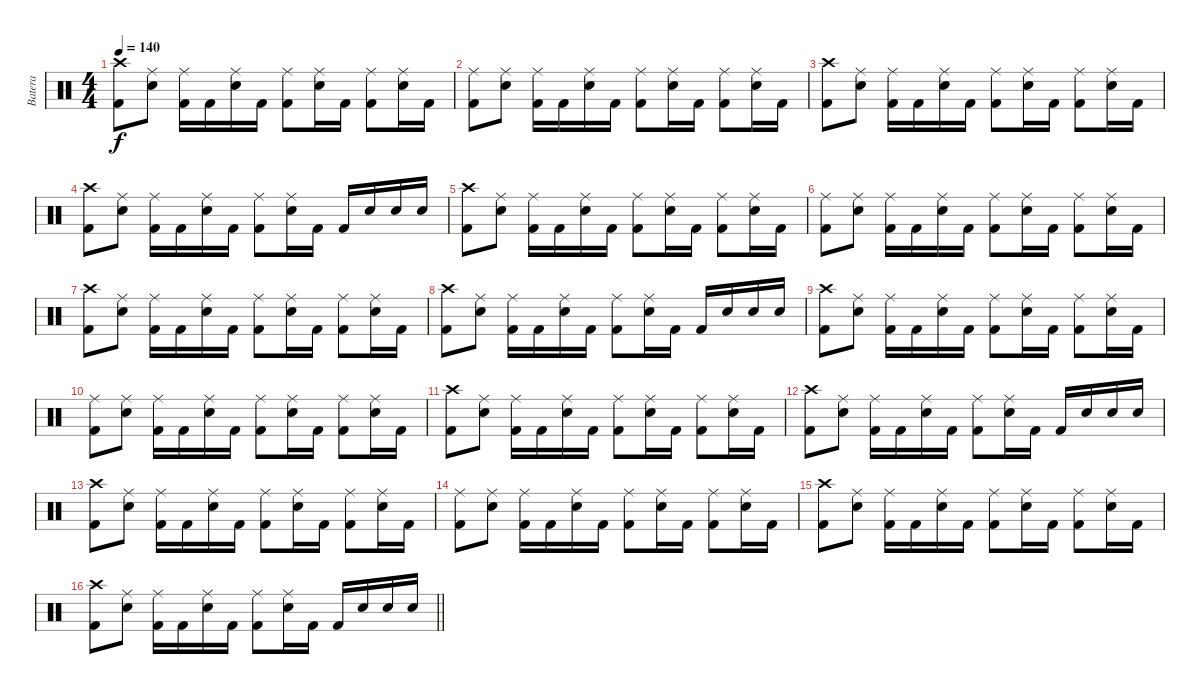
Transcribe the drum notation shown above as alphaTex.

\track ("Batera" "Batera") {instrument percussion}
\staff {score}
\articulation defaults
\ts (4 4)
\tempo 140
\clef neutral
\ks c
("Crash high (hit)" "Kick (hit) 2").8{dy f} ("Ride (middle)" "Electric Snare (hit)").8 ("Ride (middle)" "Kick (hit) 2").16 "Kick (hit) 2".16 ("Ride (middle)" "Electric Snare (hit)").16 "Kick (hit) 2".16 ("Ride (middle)" "Kick (hit) 2").8 ("Ride (middle)" "Electric Snare (hit)").16 "Kick (hit) 2".16 ("Ride (middle)" "Kick (hit) 2").8 ("Ride (middle)" "Electric Snare (hit)").16 "Kick (hit) 2".16 |
("Ride (middle)" "Kick (hit) 2").8 ("Ride (middle)" "Electric Snare (hit)").8 ("Ride (middle)" "Kick (hit) 2").16 "Kick (hit) 2".16 ("Ride (middle)" "Electric Snare (hit)").16 "Kick (hit) 2".16 ("Ride (middle)" "Kick (hit) 2").8 ("Ride (middle)" "Electric Snare (hit)").16 "Kick (hit) 2".16 ("Ride (middle)" "Kick (hit) 2").8 ("Ride (middle)" "Electric Snare (hit)").16 "Kick (hit) 2".16 |
("Crash high (hit)" "Kick (hit) 2").8 ("Ride (middle)" "Electric Snare (hit)").8 ("Ride (middle)" "Kick (hit) 2").16 "Kick (hit) 2".16 ("Ride (middle)" "Electric Snare (hit)").16 "Kick (hit) 2".16 ("Ride (middle)" "Kick (hit) 2").8 ("Ride (middle)" "Electric Snare (hit)").16 "Kick (hit) 2".16 ("Ride (middle)" "Kick (hit) 2").8 ("Ride (middle)" "Electric Snare (hit)").16 "Kick (hit) 2".16 |
("Crash high (hit)" "Kick (hit) 2").8 ("Ride (middle)" "Electric Snare (hit)").8 ("Ride (middle)" "Kick (hit) 2").16 "Kick (hit) 2".16 ("Ride (middle)" "Electric Snare (hit)").16 "Kick (hit) 2".16 ("Ride (middle)" "Kick (hit) 2").8 ("Ride (middle)" "Electric Snare (hit)").16 "Kick (hit) 2".16 "Kick (hit) 2".16 "Electric Snare (hit)".16 "Electric Snare (hit)".16 "Electric Snare (hit)".16 |
("Crash high (hit)" "Kick (hit) 2").8 ("Ride (middle)" "Electric Snare (hit)").8 ("Ride (middle)" "Kick (hit) 2").16 "Kick (hit) 2".16 ("Ride (middle)" "Electric Snare (hit)").16 "Kick (hit) 2".16 ("Ride (middle)" "Kick (hit) 2").8 ("Ride (middle)" "Electric Snare (hit)").16 "Kick (hit) 2".16 ("Ride (middle)" "Kick (hit) 2").8 ("Ride (middle)" "Electric Snare (hit)").16 "Kick (hit) 2".16 |
("Ride (middle)" "Kick (hit) 2").8 ("Ride (middle)" "Electric Snare (hit)").8 ("Ride (middle)" "Kick (hit) 2").16 "Kick (hit) 2".16 ("Ride (middle)" "Electric Snare (hit)").16 "Kick (hit) 2".16 ("Ride (middle)" "Kick (hit) 2").8 ("Ride (middle)" "Electric Snare (hit)").16 "Kick (hit) 2".16 ("Ride (middle)" "Kick (hit) 2").8 ("Ride (middle)" "Electric Snare (hit)").16 "Kick (hit) 2".16 |
("Crash high (hit)" "Kick (hit) 2").8 ("Ride (middle)" "Electric Snare (hit)").8 ("Ride (middle)" "Kick (hit) 2").16 "Kick (hit) 2".16 ("Ride (middle)" "Electric Snare (hit)").16 "Kick (hit) 2".16 ("Ride (middle)" "Kick (hit) 2").8 ("Ride (middle)" "Electric Snare (hit)").16 "Kick (hit) 2".16 ("Ride (middle)" "Kick (hit) 2").8 ("Ride (middle)" "Electric Snare (hit)").16 "Kick (hit) 2".16 |
("Crash high (hit)" "Kick (hit) 2").8 ("Ride (middle)" "Electric Snare (hit)").8 ("Ride (middle)" "Kick (hit) 2").16 "Kick (hit) 2".16 ("Ride (middle)" "Electric Snare (hit)").16 "Kick (hit) 2".16 ("Ride (middle)" "Kick (hit) 2").8 ("Ride (middle)" "Electric Snare (hit)").16 "Kick (hit) 2".16 "Kick (hit) 2".16 "Electric Snare (hit)".16 "Electric Snare (hit)".16 "Electric Snare (hit)".16 |
("Crash high (hit)" "Kick (hit) 2").8 ("Ride (middle)" "Electric Snare (hit)").8 ("Ride (middle)" "Kick (hit) 2").16 "Kick (hit) 2".16 ("Ride (middle)" "Electric Snare (hit)").16 "Kick (hit) 2".16 ("Ride (middle)" "Kick (hit) 2").8 ("Ride (middle)" "Electric Snare (hit)").16 "Kick (hit) 2".16 ("Ride (middle)" "Kick (hit) 2").8 ("Ride (middle)" "Electric Snare (hit)").16 "Kick (hit) 2".16 |
("Ride (middle)" "Kick (hit) 2").8 ("Ride (middle)" "Electric Snare (hit)").8 ("Ride (middle)" "Kick (hit) 2").16 "Kick (hit) 2".16 ("Ride (middle)" "Electric Snare (hit)").16 "Kick (hit) 2".16 ("Ride (middle)" "Kick (hit) 2").8 ("Ride (middle)" "Electric Snare (hit)").16 "Kick (hit) 2".16 ("Ride (middle)" "Kick (hit) 2").8 ("Ride (middle)" "Electric Snare (hit)").16 "Kick (hit) 2".16 |
("Crash high (hit)" "Kick (hit) 2").8 ("Ride (middle)" "Electric Snare (hit)").8 ("Ride (middle)" "Kick (hit) 2").16 "Kick (hit) 2".16 ("Ride (middle)" "Electric Snare (hit)").16 "Kick (hit) 2".16 ("Ride (middle)" "Kick (hit) 2").8 ("Ride (middle)" "Electric Snare (hit)").16 "Kick (hit) 2".16 ("Ride (middle)" "Kick (hit) 2").8 ("Ride (middle)" "Electric Snare (hit)").16 "Kick (hit) 2".16 |
("Crash high (hit)" "Kick (hit) 2").8 ("Ride (middle)" "Electric Snare (hit)").8 ("Ride (middle)" "Kick (hit) 2").16 "Kick (hit) 2".16 ("Ride (middle)" "Electric Snare (hit)").16 "Kick (hit) 2".16 ("Ride (middle)" "Kick (hit) 2").8 ("Ride (middle)" "Electric Snare (hit)").16 "Kick (hit) 2".16 "Kick (hit) 2".16 "Electric Snare (hit)".16 "Electric Snare (hit)".16 "Electric Snare (hit)".16 |
("Crash high (hit)" "Kick (hit) 2").8 ("Ride (middle)" "Electric Snare (hit)").8 ("Ride (middle)" "Kick (hit) 2").16 "Kick (hit) 2".16 ("Ride (middle)" "Electric Snare (hit)").16 "Kick (hit) 2".16 ("Ride (middle)" "Kick (hit) 2").8 ("Ride (middle)" "Electric Snare (hit)").16 "Kick (hit) 2".16 ("Ride (middle)" "Kick (hit) 2").8 ("Ride (middle)" "Electric Snare (hit)").16 "Kick (hit) 2".16 |
("Ride (middle)" "Kick (hit) 2").8 ("Ride (middle)" "Electric Snare (hit)").8 ("Ride (middle)" "Kick (hit) 2").16 "Kick (hit) 2".16 ("Ride (middle)" "Electric Snare (hit)").16 "Kick (hit) 2".16 ("Ride (middle)" "Kick (hit) 2").8 ("Ride (middle)" "Electric Snare (hit)").16 "Kick (hit) 2".16 ("Ride (middle)" "Kick (hit) 2").8 ("Ride (middle)" "Electric Snare (hit)").16 "Kick (hit) 2".16 |
("Crash high (hit)" "Kick (hit) 2").8 ("Ride (middle)" "Electric Snare (hit)").8 ("Ride (middle)" "Kick (hit) 2").16 "Kick (hit) 2".16 ("Ride (middle)" "Electric Snare (hit)").16 "Kick (hit) 2".16 ("Ride (middle)" "Kick (hit) 2").8 ("Ride (middle)" "Electric Snare (hit)").16 "Kick (hit) 2".16 ("Ride (middle)" "Kick (hit) 2").8 ("Ride (middle)" "Electric Snare (hit)").16 "Kick (hit) 2".16 |
\barLineRight lightlight
("Crash high (hit)" "Kick (hit) 2").8 ("Ride (middle)" "Electric Snare (hit)").8 ("Ride (middle)" "Kick (hit) 2").16 "Kick (hit) 2".16 ("Ride (middle)" "Electric Snare (hit)").16 "Kick (hit) 2".16 ("Ride (middle)" "Kick (hit) 2").8 ("Ride (middle)" "Electric Snare (hit)").16 "Kick (hit) 2".16 "Kick (hit) 2".16 "Electric Snare (hit)".16 "Electric Snare (hit)".16 "Electric Snare (hit)".16
